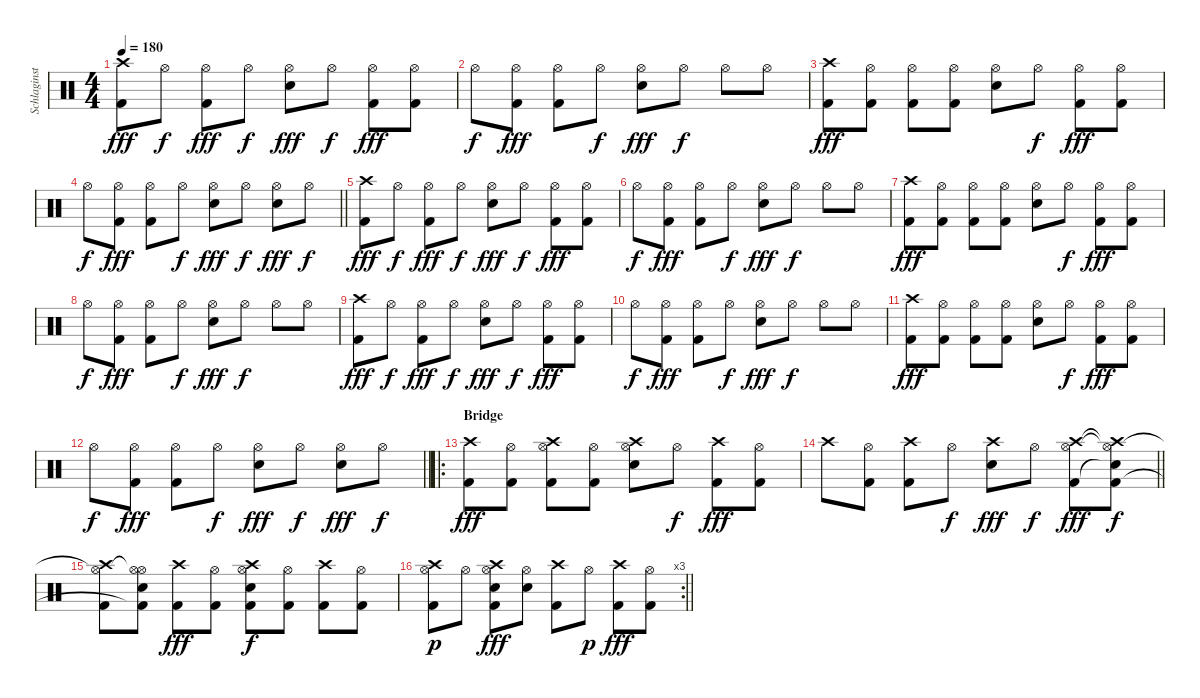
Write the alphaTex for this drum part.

\track ("Schlaginstrumente - Auswahl" "Schlaginst") {instrument percussion}
\staff {score}
\articulation defaults
\ts (4 4)
\tempo 180
\clef neutral
\ks c
("Crash high (hit)" "Kick (hit) 2").8{dy fff} "Hi-Hat (open)".8{dy f} ("Hi-Hat (open)" "Kick (hit) 2").8{dy fff} "Hi-Hat (open)".8{dy f} ("Hi-Hat (open)" "Snare (hit) 2").8{dy fff} "Hi-Hat (open)".8{dy f} ("Hi-Hat (open)" "Kick (hit) 2").8{dy fff} ("Hi-Hat (open)" "Kick (hit) 2").8 |
"Hi-Hat (open)".8{dy f} ("Hi-Hat (open)" "Kick (hit) 2").8{dy fff} ("Hi-Hat (open)" "Kick (hit) 2").8 "Hi-Hat (open)".8{dy f} ("Hi-Hat (open)" "Snare (hit) 2").8{dy fff} "Hi-Hat (open)".8{dy f} "Hi-Hat (open)".8 "Hi-Hat (open)".8 |
("Crash high (hit)" "Kick (hit) 2").8{dy fff} ("Hi-Hat (open)" "Kick (hit) 2").8 ("Hi-Hat (open)" "Kick (hit) 2").8 ("Hi-Hat (open)" "Kick (hit) 2").8 ("Hi-Hat (open)" "Snare (hit) 2").8 "Hi-Hat (open)".8{dy f} ("Hi-Hat (open)" "Kick (hit) 2").8{dy fff} ("Hi-Hat (open)" "Kick (hit) 2").8 |
\barLineRight lightlight "Hi-Hat (open)".8{dy f}
("Hi-Hat (open)" "Kick (hit) 2").8{dy fff} ("Hi-Hat (open)" "Kick (hit) 2").8 "Hi-Hat (open)".8{dy f} ("Hi-Hat (open)" "Snare (hit) 2").8{dy fff} "Hi-Hat (open)".8{dy f} ("Hi-Hat (open)" "Snare (hit) 2").8{dy fff} "Hi-Hat (open)".8{dy f} |
("Crash high (hit)" "Kick (hit) 2").8{dy fff} "Hi-Hat (open)".8{dy f} ("Hi-Hat (open)" "Kick (hit) 2").8{dy fff} "Hi-Hat (open)".8{dy f} ("Hi-Hat (open)" "Snare (hit) 2").8{dy fff} "Hi-Hat (open)".8{dy f} ("Hi-Hat (open)" "Kick (hit) 2").8{dy fff} ("Hi-Hat (open)" "Kick (hit) 2").8 |
"Hi-Hat (open)".8{dy f} ("Hi-Hat (open)" "Kick (hit) 2").8{dy fff} ("Hi-Hat (open)" "Kick (hit) 2").8 "Hi-Hat (open)".8{dy f} ("Hi-Hat (open)" "Snare (hit) 2").8{dy fff} "Hi-Hat (open)".8{dy f} "Hi-Hat (open)".8 "Hi-Hat (open)".8 |
("Crash high (hit)" "Kick (hit) 2").8{dy fff} ("Hi-Hat (open)" "Kick (hit) 2").8 ("Hi-Hat (open)" "Kick (hit) 2").8 ("Hi-Hat (open)" "Kick (hit) 2").8 ("Hi-Hat (open)" "Snare (hit) 2").8 "Hi-Hat (open)".8{dy f} ("Hi-Hat (open)" "Kick (hit) 2").8{dy fff} ("Hi-Hat (open)" "Kick (hit) 2").8 |
"Hi-Hat (open)".8{dy f} ("Hi-Hat (open)" "Kick (hit) 2").8{dy fff} ("Hi-Hat (open)" "Kick (hit) 2").8 "Hi-Hat (open)".8{dy f} ("Hi-Hat (open)" "Snare (hit) 2").8{dy fff} "Hi-Hat (open)".8{dy f} "Hi-Hat (open)".8 "Hi-Hat (open)".8 |
("Crash high (hit)" "Kick (hit) 2").8{dy fff} "Hi-Hat (open)".8{dy f} ("Hi-Hat (open)" "Kick (hit) 2").8{dy fff} "Hi-Hat (open)".8{dy f} ("Hi-Hat (open)" "Snare (hit) 2").8{dy fff} "Hi-Hat (open)".8{dy f} ("Hi-Hat (open)" "Kick (hit) 2").8{dy fff} ("Hi-Hat (open)" "Kick (hit) 2").8 |
"Hi-Hat (open)".8{dy f} ("Hi-Hat (open)" "Kick (hit) 2").8{dy fff} ("Hi-Hat (open)" "Kick (hit) 2").8 "Hi-Hat (open)".8{dy f} ("Hi-Hat (open)" "Snare (hit) 2").8{dy fff} "Hi-Hat (open)".8{dy f} "Hi-Hat (open)".8 "Hi-Hat (open)".8 |
("Crash high (hit)" "Kick (hit) 2").8{dy fff} ("Hi-Hat (open)" "Kick (hit) 2").8 ("Hi-Hat (open)" "Kick (hit) 2").8 ("Hi-Hat (open)" "Kick (hit) 2").8 ("Hi-Hat (open)" "Snare (hit) 2").8 "Hi-Hat (open)".8{dy f} ("Hi-Hat (open)" "Kick (hit) 2").8{dy fff} ("Hi-Hat (open)" "Kick (hit) 2").8 |
\barLineRight lightlight "Hi-Hat (open)".8{dy f}
("Hi-Hat (open)" "Kick (hit) 2").8{dy fff} ("Hi-Hat (open)" "Kick (hit) 2").8 "Hi-Hat (open)".8{dy f} ("Hi-Hat (open)" "Snare (hit) 2").8{dy fff} "Hi-Hat (open)".8{dy f} ("Hi-Hat (open)" "Snare (hit) 2").8{dy fff} "Hi-Hat (open)".8{dy f} |
\ro
\section ("" "Bridge")
("Crash high (hit)" "Kick (hit) 2").8{dy fff} ("Hi-Hat (open)" "Kick (hit) 2").8 ("Hi-Hat (open)" "Crash high (hit)" "Kick (hit) 2").8 ("Hi-Hat (open)" "Kick (hit) 2").8 ("Hi-Hat (open)" "Crash high (hit)" "Snare (hit) 2").8 "Hi-Hat (open)".8{dy f} ("Crash high (hit)" "Kick (hit) 2").8{dy fff} ("Hi-Hat (open)" "Kick (hit) 2").8 |
\barLineRight lightlight "Crash high (hit)".8
("Hi-Hat (open)" "Kick (hit) 2").8 ("Crash high (hit)" "Kick (hit) 2").8 "Hi-Hat (open)".8{dy f} ("Crash high (hit)" "Snare (hit) 2").8{dy fff} "Hi-Hat (open)".8{dy f} ("Crash high (hit)" "Hi-Hat (open)" "Kick (hit) 2").8{dy fff} ("Crash high (hit)"{t} "Hi-Hat (open)"{t} "Snare (hit)"{t} "Kick (hit) 2").8{dy f} |
("Crash high (hit)" "Hi-Hat (open)"{t} "Kick (hit) 2").8 ("Hi-Hat (open)" "Hi-Hat (open)"{t} "Snare (hit) 2" "Kick (hit) 2"{t}).8 ("Crash high (hit)" "Kick (hit) 2").8{dy fff} ("Hi-Hat (open)" "Kick (hit) 2").8 ("Crash high (hit)" "Hi-Hat (open)" "Snare (hit) 2" "Kick (hit) 2").8{dy f} ("Hi-Hat (open)" "Kick (hit) 2").8 ("Crash high (hit)" "Kick (hit) 2").8 ("Hi-Hat (open)" "Kick (hit) 2").8 |
\rc 3
\barLineRight lightlight
("Hi-Hat (open)" "Crash high (hit)" "Kick (hit) 2").8{dy p} "Hi-Hat (open)".8 ("Hi-Hat (open)" "Crash high (hit)" "Snare (hit) 2" "Kick (hit) 2").8{dy fff} ("Hi-Hat (open)" "Snare (hit) 2").8 ("Crash high (hit)" "Kick (hit) 2").8 "Hi-Hat (open)".8{dy p} ("Crash high (hit)" "Kick (hit) 2").8{dy fff} ("Hi-Hat (open)" "Kick (hit) 2").8
